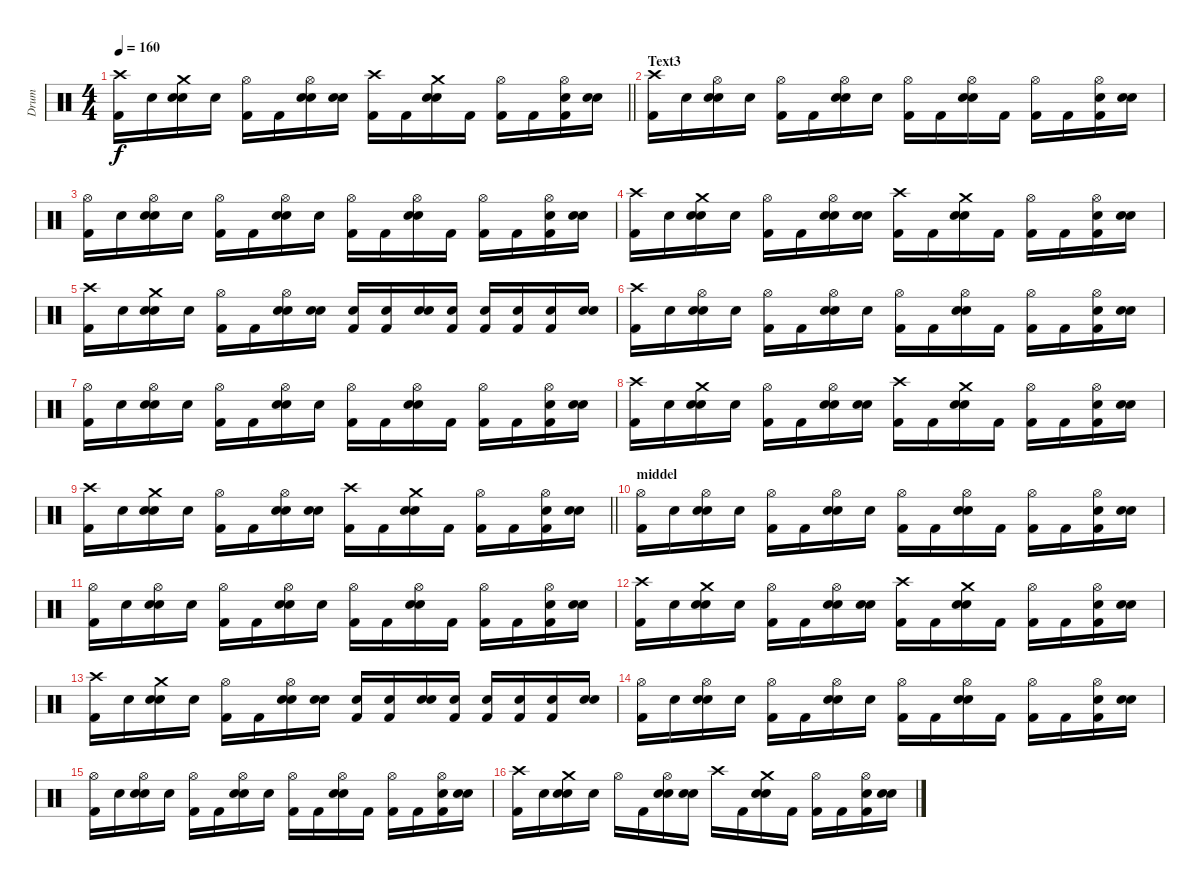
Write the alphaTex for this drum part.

\track ("Drum" "Drum") {instrument percussion}
\staff {score}
\articulation defaults
\ts (4 4)
\tempo 160
\clef neutral
\barLineRight lightlight
\ks c
("Crash high (hit)" "Kick (hit) 2").16{dy f} "Snare (hit)"{x}.16 ("Crash medium (hit)" "Electric Snare (hit)" "Snare (hit)"{x}).16 "Snare (hit)"{x}.16 ("Hi-Hat (open)" "Kick (hit) 2").16 "Kick (hit) 2".16 ("Hi-Hat (open)" "Electric Snare (hit)" "Snare (hit)"{x}).16 ("Electric Snare (hit)" "Snare (hit)"{x}).16 ("Crash high (hit)" "Kick (hit) 2").16 "Kick (hit) 2".16 ("Crash medium (hit)" "Electric Snare (hit)" "Snare (hit)"{x}).16 "Kick (hit) 2".16 ("Hi-Hat (open)" "Kick (hit) 2"{x}).16 "Kick (hit) 2".16 ("Hi-Hat (open)" "Electric Snare (hit)" "Kick (hit) 2"{x}).16 ("Electric Snare (hit)" "Snare (hit)"{x}).16 |
\section ("" "Text3")
("Crash high (hit)" "Kick (hit) 2").16 "Snare (hit)"{x}.16 ("Hi-Hat (open)" "Electric Snare (hit)" "Snare (hit)"{x}).16 "Snare (hit)"{x}.16 ("Hi-Hat (open)" "Kick (hit) 2").16 "Kick (hit) 2".16 ("Hi-Hat (open)" "Electric Snare (hit)" "Snare (hit)"{x}).16 "Snare (hit)"{x}.16 ("Hi-Hat (open)" "Kick (hit) 2").16 "Kick (hit) 2".16 ("Hi-Hat (open)" "Electric Snare (hit)" "Snare (hit)"{x}).16 "Kick (hit) 2".16 ("Hi-Hat (open)" "Kick (hit) 2"{x}).16 "Kick (hit) 2".16 ("Hi-Hat (open)" "Electric Snare (hit)" "Kick (hit) 2"{x}).16 ("Electric Snare (hit)" "Snare (hit)"{x}).16 |
("Hi-Hat (open)" "Kick (hit) 2").16 "Snare (hit)"{x}.16 ("Hi-Hat (open)" "Electric Snare (hit)" "Snare (hit)"{x}).16 "Snare (hit)"{x}.16 ("Hi-Hat (open)" "Kick (hit) 2").16 "Kick (hit) 2".16 ("Hi-Hat (open)" "Electric Snare (hit)" "Snare (hit)"{x}).16 "Snare (hit)"{x}.16 ("Hi-Hat (open)" "Kick (hit) 2").16 "Kick (hit) 2".16 ("Hi-Hat (open)" "Electric Snare (hit)" "Snare (hit)"{x}).16 "Kick (hit) 2".16 ("Hi-Hat (open)" "Kick (hit) 2"{x}).16 "Kick (hit) 2".16 ("Hi-Hat (open)" "Electric Snare (hit)" "Kick (hit) 2"{x}).16 ("Electric Snare (hit)" "Snare (hit)"{x}).16 |
("Crash high (hit)" "Kick (hit) 2").16 "Snare (hit)"{x}.16 ("Crash medium (hit)" "Electric Snare (hit)" "Snare (hit)"{x}).16 "Snare (hit)"{x}.16 ("Hi-Hat (open)" "Kick (hit) 2").16 "Kick (hit) 2"{x}.16 ("Hi-Hat (open)" "Electric Snare (hit)" "Snare (hit)"{x}).16 ("Electric Snare (hit)" "Snare (hit)"{x}).16 ("Crash high (hit)" "Kick (hit) 2").16 "Kick (hit) 2"{x}.16 ("Crash medium (hit)" "Electric Snare (hit)" "Snare (hit)"{x}).16 "Kick (hit) 2"{x}.16 ("Hi-Hat (open)" "Kick (hit) 2").16 "Kick (hit) 2"{x}.16 ("Hi-Hat (open)" "Electric Snare (hit)" "Kick (hit) 2"{x}).16 ("Electric Snare (hit)" "Snare (hit)"{x}).16 |
("Crash high (hit)" "Kick (hit) 2").16 "Snare (hit)"{x}.16 ("Crash medium (hit)" "Electric Snare (hit)" "Snare (hit)"{x}).16 "Snare (hit)"{x}.16 ("Hi-Hat (open)" "Kick (hit) 2").16 "Kick (hit) 2".16 ("Hi-Hat (open)" "Electric Snare (hit)" "Snare (hit)"{x}).16 ("Electric Snare (hit)" "Snare (hit)"{x}).16 ("Electric Snare (hit)" "Kick (hit) 2").16 ("Electric Snare (hit)" "Kick (hit) 2").16 ("Electric Snare (hit)" "Snare (hit)"{x}).16 ("Electric Snare (hit)" "Kick (hit) 2").16 ("Electric Snare (hit)" "Kick (hit) 2").16 ("Electric Snare (hit)" "Kick (hit) 2"{x}).16 ("Electric Snare (hit)" "Kick (hit) 2").16 ("Electric Snare (hit)" "Snare (hit)"{x}).16 |
("Crash high (hit)" "Kick (hit) 2").16 "Snare (hit)"{x}.16 ("Hi-Hat (open)" "Electric Snare (hit)" "Snare (hit)"{x}).16 "Snare (hit)"{x}.16 ("Hi-Hat (open)" "Kick (hit) 2").16 "Kick (hit) 2".16 ("Hi-Hat (open)" "Electric Snare (hit)" "Snare (hit)"{x}).16 "Snare (hit)"{x}.16 ("Hi-Hat (open)" "Kick (hit) 2").16 "Kick (hit) 2".16 ("Hi-Hat (open)" "Electric Snare (hit)" "Snare (hit)"{x}).16 "Kick (hit) 2".16 ("Hi-Hat (open)" "Kick (hit) 2"{x}).16 "Kick (hit) 2".16 ("Hi-Hat (open)" "Electric Snare (hit)" "Kick (hit) 2"{x}).16 ("Electric Snare (hit)" "Snare (hit)"{x}).16 |
("Hi-Hat (open)" "Kick (hit) 2").16 "Snare (hit)"{x}.16 ("Hi-Hat (open)" "Electric Snare (hit)" "Snare (hit)"{x}).16 "Snare (hit)"{x}.16 ("Hi-Hat (open)" "Kick (hit) 2").16 "Kick (hit) 2".16 ("Hi-Hat (open)" "Electric Snare (hit)" "Snare (hit)"{x}).16 "Snare (hit)"{x}.16 ("Hi-Hat (open)" "Kick (hit) 2").16 "Kick (hit) 2".16 ("Hi-Hat (open)" "Electric Snare (hit)" "Snare (hit)"{x}).16 "Kick (hit) 2".16 ("Hi-Hat (open)" "Kick (hit) 2"{x}).16 "Kick (hit) 2".16 ("Hi-Hat (open)" "Electric Snare (hit)" "Kick (hit) 2"{x}).16 ("Electric Snare (hit)" "Snare (hit)"{x}).16 |
("Crash high (hit)" "Kick (hit) 2").16 "Snare (hit)"{x}.16 ("Crash medium (hit)" "Electric Snare (hit)" "Snare (hit)"{x}).16 "Snare (hit)"{x}.16 ("Hi-Hat (open)" "Kick (hit) 2").16 "Kick (hit) 2"{x}.16 ("Hi-Hat (open)" "Electric Snare (hit)" "Snare (hit)"{x}).16 ("Electric Snare (hit)" "Snare (hit)"{x}).16 ("Crash high (hit)" "Kick (hit) 2").16 "Kick (hit) 2"{x}.16 ("Crash medium (hit)" "Electric Snare (hit)" "Snare (hit)"{x}).16 "Kick (hit) 2"{x}.16 ("Hi-Hat (open)" "Kick (hit) 2").16 "Kick (hit) 2"{x}.16 ("Hi-Hat (open)" "Electric Snare (hit)" "Kick (hit) 2"{x}).16 ("Electric Snare (hit)" "Snare (hit)"{x}).16 |
\barLineRight lightlight
("Crash high (hit)" "Kick (hit) 2").16 "Snare (hit)"{x}.16 ("Crash medium (hit)" "Electric Snare (hit)" "Snare (hit)"{x}).16 "Snare (hit)"{x}.16 ("Hi-Hat (open)" "Kick (hit) 2").16 "Kick (hit) 2".16 ("Hi-Hat (open)" "Electric Snare (hit)" "Snare (hit)"{x}).16 ("Electric Snare (hit)" "Snare (hit)"{x}).16 ("Crash high (hit)" "Kick (hit) 2").16 "Kick (hit) 2".16 ("Crash medium (hit)" "Electric Snare (hit)" "Snare (hit)"{x}).16 "Kick (hit) 2".16 ("Hi-Hat (open)" "Kick (hit) 2"{x}).16 "Kick (hit) 2".16 ("Hi-Hat (open)" "Electric Snare (hit)" "Kick (hit) 2"{x}).16 ("Electric Snare (hit)" "Snare (hit)"{x}).16 |
\section ("" "middel")
("Hi-Hat (open)" "Kick (hit) 2").16 "Snare (hit)"{x}.16 ("Hi-Hat (open)" "Electric Snare (hit)" "Snare (hit)"{x}).16 "Snare (hit)"{x}.16 ("Hi-Hat (open)" "Kick (hit) 2").16 "Kick (hit) 2".16 ("Hi-Hat (open)" "Electric Snare (hit)" "Snare (hit)"{x}).16 "Snare (hit)"{x}.16 ("Hi-Hat (open)" "Kick (hit) 2").16 "Kick (hit) 2".16 ("Hi-Hat (open)" "Electric Snare (hit)" "Snare (hit)"{x}).16 "Kick (hit) 2".16 ("Hi-Hat (open)" "Kick (hit) 2"{x}).16 "Kick (hit) 2".16 ("Hi-Hat (open)" "Electric Snare (hit)" "Kick (hit) 2"{x}).16 ("Electric Snare (hit)" "Snare (hit)"{x}).16 |
("Hi-Hat (open)" "Kick (hit) 2").16 "Snare (hit)"{x}.16 ("Hi-Hat (open)" "Electric Snare (hit)" "Snare (hit)"{x}).16 "Snare (hit)"{x}.16 ("Hi-Hat (open)" "Kick (hit) 2").16 "Kick (hit) 2".16 ("Hi-Hat (open)" "Electric Snare (hit)" "Snare (hit)"{x}).16 "Snare (hit)"{x}.16 ("Hi-Hat (open)" "Kick (hit) 2").16 "Kick (hit) 2".16 ("Hi-Hat (open)" "Electric Snare (hit)" "Snare (hit)"{x}).16 "Kick (hit) 2".16 ("Hi-Hat (open)" "Kick (hit) 2"{x}).16 "Kick (hit) 2".16 ("Hi-Hat (open)" "Electric Snare (hit)" "Kick (hit) 2"{x}).16 ("Electric Snare (hit)" "Snare (hit)"{x}).16 |
("Crash high (hit)" "Kick (hit) 2").16 "Snare (hit)"{x}.16 ("Crash medium (hit)" "Electric Snare (hit)" "Snare (hit)"{x}).16 "Snare (hit)"{x}.16 ("Hi-Hat (open)" "Kick (hit) 2").16 "Kick (hit) 2"{x}.16 ("Hi-Hat (open)" "Electric Snare (hit)" "Snare (hit)"{x}).16 ("Electric Snare (hit)" "Snare (hit)"{x}).16 ("Crash high (hit)" "Kick (hit) 2").16 "Kick (hit) 2"{x}.16 ("Crash medium (hit)" "Electric Snare (hit)" "Snare (hit)"{x}).16 "Kick (hit) 2"{x}.16 ("Hi-Hat (open)" "Kick (hit) 2").16 "Kick (hit) 2"{x}.16 ("Hi-Hat (open)" "Electric Snare (hit)" "Kick (hit) 2"{x}).16 ("Electric Snare (hit)" "Snare (hit)"{x}).16 |
("Crash high (hit)" "Kick (hit) 2").16 "Snare (hit)"{x}.16 ("Crash medium (hit)" "Electric Snare (hit)" "Snare (hit)"{x}).16 "Snare (hit)"{x}.16 ("Hi-Hat (open)" "Kick (hit) 2").16 "Kick (hit) 2".16 ("Hi-Hat (open)" "Electric Snare (hit)" "Snare (hit)"{x}).16 ("Electric Snare (hit)" "Snare (hit)"{x}).16 ("Electric Snare (hit)" "Kick (hit) 2").16 ("Electric Snare (hit)" "Kick (hit) 2").16 ("Electric Snare (hit)" "Snare (hit)"{x}).16 ("Electric Snare (hit)" "Kick (hit) 2").16 ("Electric Snare (hit)" "Kick (hit) 2").16 ("Electric Snare (hit)" "Kick (hit) 2"{x}).16 ("Electric Snare (hit)" "Kick (hit) 2").16 ("Electric Snare (hit)" "Snare (hit)"{x}).16 |
("Hi-Hat (open)" "Kick (hit) 2").16 "Snare (hit)"{x}.16 ("Hi-Hat (open)" "Electric Snare (hit)" "Snare (hit)"{x}).16 "Snare (hit)"{x}.16 ("Hi-Hat (open)" "Kick (hit) 2").16 "Kick (hit) 2".16 ("Hi-Hat (open)" "Electric Snare (hit)" "Snare (hit)"{x}).16 "Snare (hit)"{x}.16 ("Hi-Hat (open)" "Kick (hit) 2").16 "Kick (hit) 2".16 ("Hi-Hat (open)" "Electric Snare (hit)" "Snare (hit)"{x}).16 "Kick (hit) 2".16 ("Hi-Hat (open)" "Kick (hit) 2"{x}).16 "Kick (hit) 2".16 ("Hi-Hat (open)" "Electric Snare (hit)" "Kick (hit) 2"{x}).16 ("Electric Snare (hit)" "Snare (hit)"{x}).16 |
("Hi-Hat (open)" "Kick (hit) 2").16 "Snare (hit)"{x}.16 ("Hi-Hat (open)" "Electric Snare (hit)" "Snare (hit)"{x}).16 "Snare (hit)"{x}.16 ("Hi-Hat (open)" "Kick (hit) 2").16 "Kick (hit) 2".16 ("Hi-Hat (open)" "Electric Snare (hit)" "Snare (hit)"{x}).16 "Snare (hit)"{x}.16 ("Hi-Hat (open)" "Kick (hit) 2").16 "Kick (hit) 2".16 ("Hi-Hat (open)" "Electric Snare (hit)" "Snare (hit)"{x}).16 "Kick (hit) 2".16 ("Hi-Hat (open)" "Kick (hit) 2"{x}).16 "Kick (hit) 2".16 ("Hi-Hat (open)" "Electric Snare (hit)" "Kick (hit) 2"{x}).16 ("Electric Snare (hit)" "Snare (hit)"{x}).16 |
("Crash high (hit)" "Kick (hit) 2").16 "Snare (hit)"{x}.16 ("Crash medium (hit)" "Electric Snare (hit)" "Snare (hit)"{x}).16 "Snare (hit)"{x}.16 "Hi-Hat (open)".16 "Kick (hit) 2".16 ("Hi-Hat (open)" "Electric Snare (hit)" "Snare (hit)"{x}).16 ("Electric Snare (hit)" "Snare (hit)"{x}).16 "Crash high (hit)".16 "Kick (hit) 2".16 ("Crash medium (hit)" "Electric Snare (hit)" "Snare (hit)"{x}).16 "Kick (hit) 2".16 ("Hi-Hat (open)" "Kick (hit) 2"{x}).16 "Kick (hit) 2".16 ("Hi-Hat (open)" "Electric Snare (hit)" "Kick (hit) 2"{x}).16 ("Electric Snare (hit)" "Snare (hit)"{x}).16
